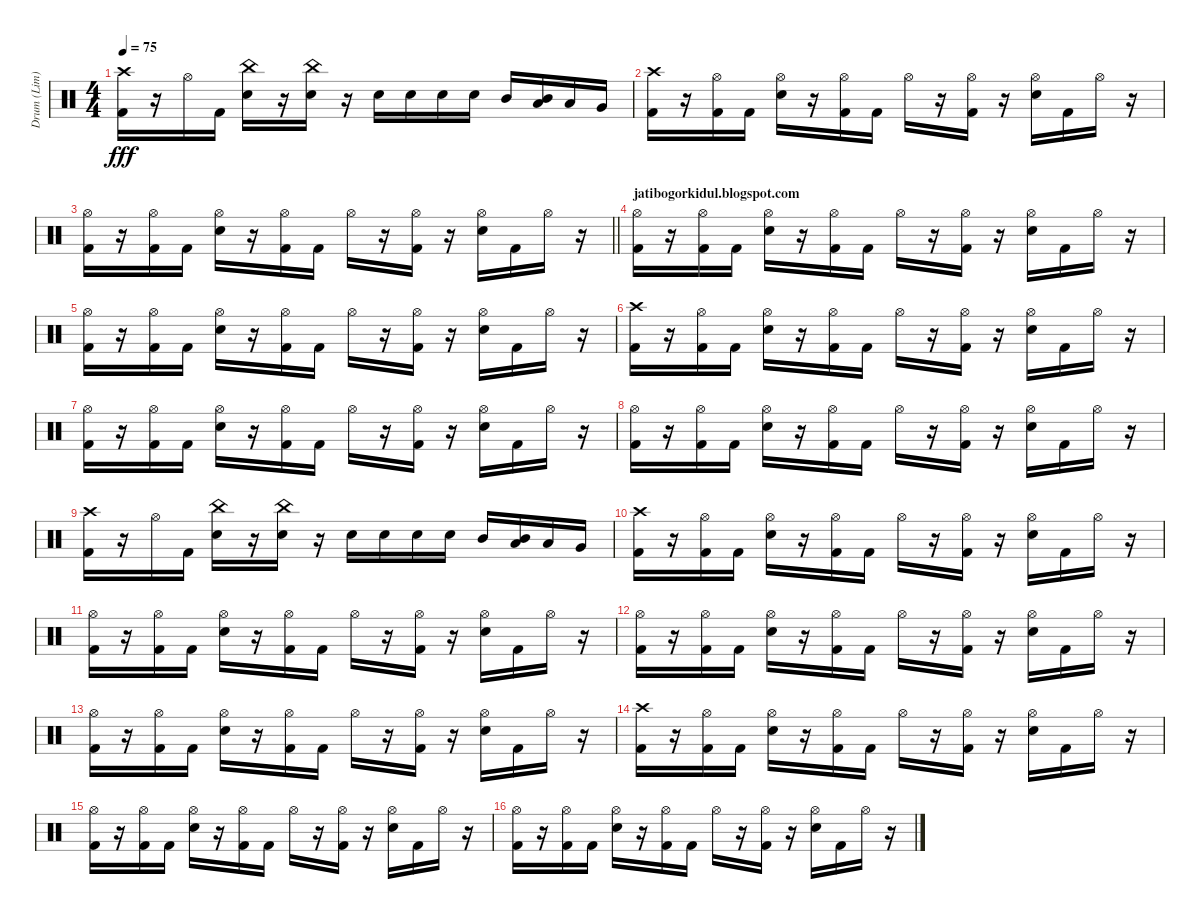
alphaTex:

\track ("Drum (Lim)" "Drum (Lim)") {instrument percussion}
\staff {score}
\articulation defaults
\ts (4 4)
\tempo 75
\clef neutral
\ks c
("Kick (hit) 2" "Crash high (hit)").16{dy fff} r.16 "Hi-Hat (open)".16 "Kick (hit) 2".16 ("Electric Snare (hit)" "China (hit)").16 r.16 ("Electric Snare (hit)" "China (hit)").16 r.16 "Electric Snare (hit)".16 "Electric Snare (hit)".16 "Electric Snare (hit)".16 "Electric Snare (hit)".16 "Mid Tom (hit)".16 ("Mid Tom (hit)" "Low Tom (hit)").16 "Low Tom (hit)".16 "Very Low Tom (hit)".16 |
("Kick (hit) 2" "Crash high (hit)").16 r.16 ("Kick (hit) 2" "Hi-Hat (open)").16 "Kick (hit) 2".16 ("Hi-Hat (open)" "Electric Snare (hit)").16 r.16 ("Hi-Hat (open)" "Kick (hit) 2").16 "Kick (hit) 2".16 "Hi-Hat (open)".16 r.16 ("Hi-Hat (open)" "Kick (hit) 2").16 r.16 ("Hi-Hat (open)" "Electric Snare (hit)").16 "Kick (hit) 2".16 "Hi-Hat (open)".16 r.16 |
\barLineRight lightlight
("Hi-Hat (open)" "Kick (hit) 2").16 r.16 ("Hi-Hat (open)" "Kick (hit) 2").16 "Kick (hit) 2".16 ("Electric Snare (hit)" "Hi-Hat (open)").16 r.16 ("Kick (hit) 2" "Hi-Hat (open)").16 "Kick (hit) 2".16 "Hi-Hat (open)".16 r.16 ("Hi-Hat (open)" "Kick (hit) 2").16 r.16 ("Electric Snare (hit)" "Hi-Hat (open)").16 "Kick (hit) 2".16 "Hi-Hat (open)".16 r.16 |
\section ("" "jatibogorkidul.blogspot.com")
("Kick (hit) 2" "Hi-Hat (open)").16 r.16 ("Hi-Hat (open)" "Kick (hit) 2").16 "Kick (hit) 2".16 ("Hi-Hat (open)" "Electric Snare (hit)").16 r.16 ("Kick (hit) 2" "Hi-Hat (open)").16 "Kick (hit) 2".16 "Hi-Hat (open)".16 r.16 ("Kick (hit) 2" "Hi-Hat (open)").16 r.16 ("Hi-Hat (open)" "Electric Snare (hit)").16 "Kick (hit) 2".16 "Hi-Hat (open)".16 r.16 |
("Hi-Hat (open)" "Kick (hit) 2").16 r.16 ("Hi-Hat (open)" "Kick (hit) 2").16 "Kick (hit) 2".16 ("Electric Snare (hit)" "Hi-Hat (open)").16 r.16 ("Kick (hit) 2" "Hi-Hat (open)").16 "Kick (hit) 2".16 "Hi-Hat (open)".16 r.16 ("Hi-Hat (open)" "Kick (hit) 2").16 r.16 ("Electric Snare (hit)" "Hi-Hat (open)").16 "Kick (hit) 2".16 "Hi-Hat (open)".16 r.16 |
("Kick (hit) 2" "Crash high (hit)").16 r.16 ("Kick (hit) 2" "Hi-Hat (open)").16 "Kick (hit) 2".16 ("Electric Snare (hit)" "Hi-Hat (open)").16 r.16 ("Kick (hit) 2" "Hi-Hat (open)").16 "Kick (hit) 2".16 "Hi-Hat (open)".16 r.16 ("Kick (hit) 2" "Hi-Hat (open)").16 r.16 ("Electric Snare (hit)" "Hi-Hat (open)").16 "Kick (hit) 2".16 "Hi-Hat (open)".16 r.16 |
("Hi-Hat (open)" "Kick (hit) 2").16 r.16 ("Hi-Hat (open)" "Kick (hit) 2").16 "Kick (hit) 2".16 ("Hi-Hat (open)" "Electric Snare (hit)").16 r.16 ("Hi-Hat (open)" "Kick (hit) 2").16 "Kick (hit) 2".16 "Hi-Hat (open)".16 r.16 ("Kick (hit) 2" "Hi-Hat (open)").16 r.16 ("Electric Snare (hit)" "Hi-Hat (open)").16 "Kick (hit) 2".16 "Hi-Hat (open)".16 r.16 |
("Kick (hit) 2" "Hi-Hat (open)").16 r.16 ("Hi-Hat (open)" "Kick (hit) 2").16 "Kick (hit) 2".16 ("Electric Snare (hit)" "Hi-Hat (open)").16 r.16 ("Hi-Hat (open)" "Kick (hit) 2").16 "Kick (hit) 2".16 "Hi-Hat (open)".16 r.16 ("Kick (hit) 2" "Hi-Hat (open)").16 r.16 ("Electric Snare (hit)" "Hi-Hat (open)").16 "Kick (hit) 2".16 "Hi-Hat (open)".16 r.16 |
("Kick (hit) 2" "Crash high (hit)").16 r.16 "Hi-Hat (open)".16 "Kick (hit) 2".16 ("China (hit)" "Electric Snare (hit)").16 r.16 ("Electric Snare (hit)" "China (hit)").16 r.16 "Electric Snare (hit)".16 "Electric Snare (hit)".16 "Electric Snare (hit)".16 "Electric Snare (hit)".16 "Mid Tom (hit)".16 ("Mid Tom (hit)" "Low Tom (hit)").16 "Low Tom (hit)".16 "Very Low Tom (hit)".16 |
("Crash high (hit)" "Kick (hit) 2").16 r.16 ("Kick (hit) 2" "Hi-Hat (open)").16 "Kick (hit) 2".16 ("Hi-Hat (open)" "Electric Snare (hit)").16 r.16 ("Hi-Hat (open)" "Kick (hit) 2").16 "Kick (hit) 2".16 "Hi-Hat (open)".16 r.16 ("Kick (hit) 2" "Hi-Hat (open)").16 r.16 ("Hi-Hat (open)" "Electric Snare (hit)").16 "Kick (hit) 2".16 "Hi-Hat (open)".16 r.16 |
("Kick (hit) 2" "Hi-Hat (open)").16 r.16 ("Kick (hit) 2" "Hi-Hat (open)").16 "Kick (hit) 2".16 ("Hi-Hat (open)" "Electric Snare (hit)").16 r.16 ("Kick (hit) 2" "Hi-Hat (open)").16 "Kick (hit) 2".16 "Hi-Hat (open)".16 r.16 ("Hi-Hat (open)" "Kick (hit) 2").16 r.16 ("Hi-Hat (open)" "Electric Snare (hit)").16 "Kick (hit) 2".16 "Hi-Hat (open)".16 r.16 |
("Hi-Hat (open)" "Kick (hit) 2").16 r.16 ("Kick (hit) 2" "Hi-Hat (open)").16 "Kick (hit) 2".16 ("Hi-Hat (open)" "Electric Snare (hit)").16 r.16 ("Hi-Hat (open)" "Kick (hit) 2").16 "Kick (hit) 2".16 "Hi-Hat (open)".16 r.16 ("Hi-Hat (open)" "Kick (hit) 2").16 r.16 ("Hi-Hat (open)" "Electric Snare (hit)").16 "Kick (hit) 2".16 "Hi-Hat (open)".16 r.16 |
("Kick (hit) 2" "Hi-Hat (open)").16 r.16 ("Kick (hit) 2" "Hi-Hat (open)").16 "Kick (hit) 2".16 ("Electric Snare (hit)" "Hi-Hat (open)").16 r.16 ("Kick (hit) 2" "Hi-Hat (open)").16 "Kick (hit) 2".16 "Hi-Hat (open)".16 r.16 ("Hi-Hat (open)" "Kick (hit) 2").16 r.16 ("Electric Snare (hit)" "Hi-Hat (open)").16 "Kick (hit) 2".16 "Hi-Hat (open)".16 r.16 |
("Kick (hit) 2" "Crash high (hit)").16 r.16 ("Hi-Hat (open)" "Kick (hit) 2").16 "Kick (hit) 2".16 ("Hi-Hat (open)" "Electric Snare (hit)").16 r.16 ("Hi-Hat (open)" "Kick (hit) 2").16 "Kick (hit) 2".16 "Hi-Hat (open)".16 r.16 ("Hi-Hat (open)" "Kick (hit) 2").16 r.16 ("Hi-Hat (open)" "Electric Snare (hit)").16 "Kick (hit) 2".16 "Hi-Hat (open)".16 r.16 |
("Kick (hit) 2" "Hi-Hat (open)").16 r.16 ("Hi-Hat (open)" "Kick (hit) 2").16 "Kick (hit) 2".16 ("Electric Snare (hit)" "Hi-Hat (open)").16 r.16 ("Kick (hit) 2" "Hi-Hat (open)").16 "Kick (hit) 2".16 "Hi-Hat (open)".16 r.16 ("Kick (hit) 2" "Hi-Hat (open)").16 r.16 ("Electric Snare (hit)" "Hi-Hat (open)").16 "Kick (hit) 2".16 "Hi-Hat (open)".16 r.16 |
("Kick (hit) 2" "Hi-Hat (open)").16 r.16 ("Hi-Hat (open)" "Kick (hit) 2").16 "Kick (hit) 2".16 ("Electric Snare (hit)" "Hi-Hat (open)").16 r.16 ("Hi-Hat (open)" "Kick (hit) 2").16 "Kick (hit) 2".16 "Hi-Hat (open)".16 r.16 ("Hi-Hat (open)" "Kick (hit) 2").16 r.16 ("Hi-Hat (open)" "Electric Snare (hit)").16 "Kick (hit) 2".16 "Hi-Hat (open)".16 r.16
